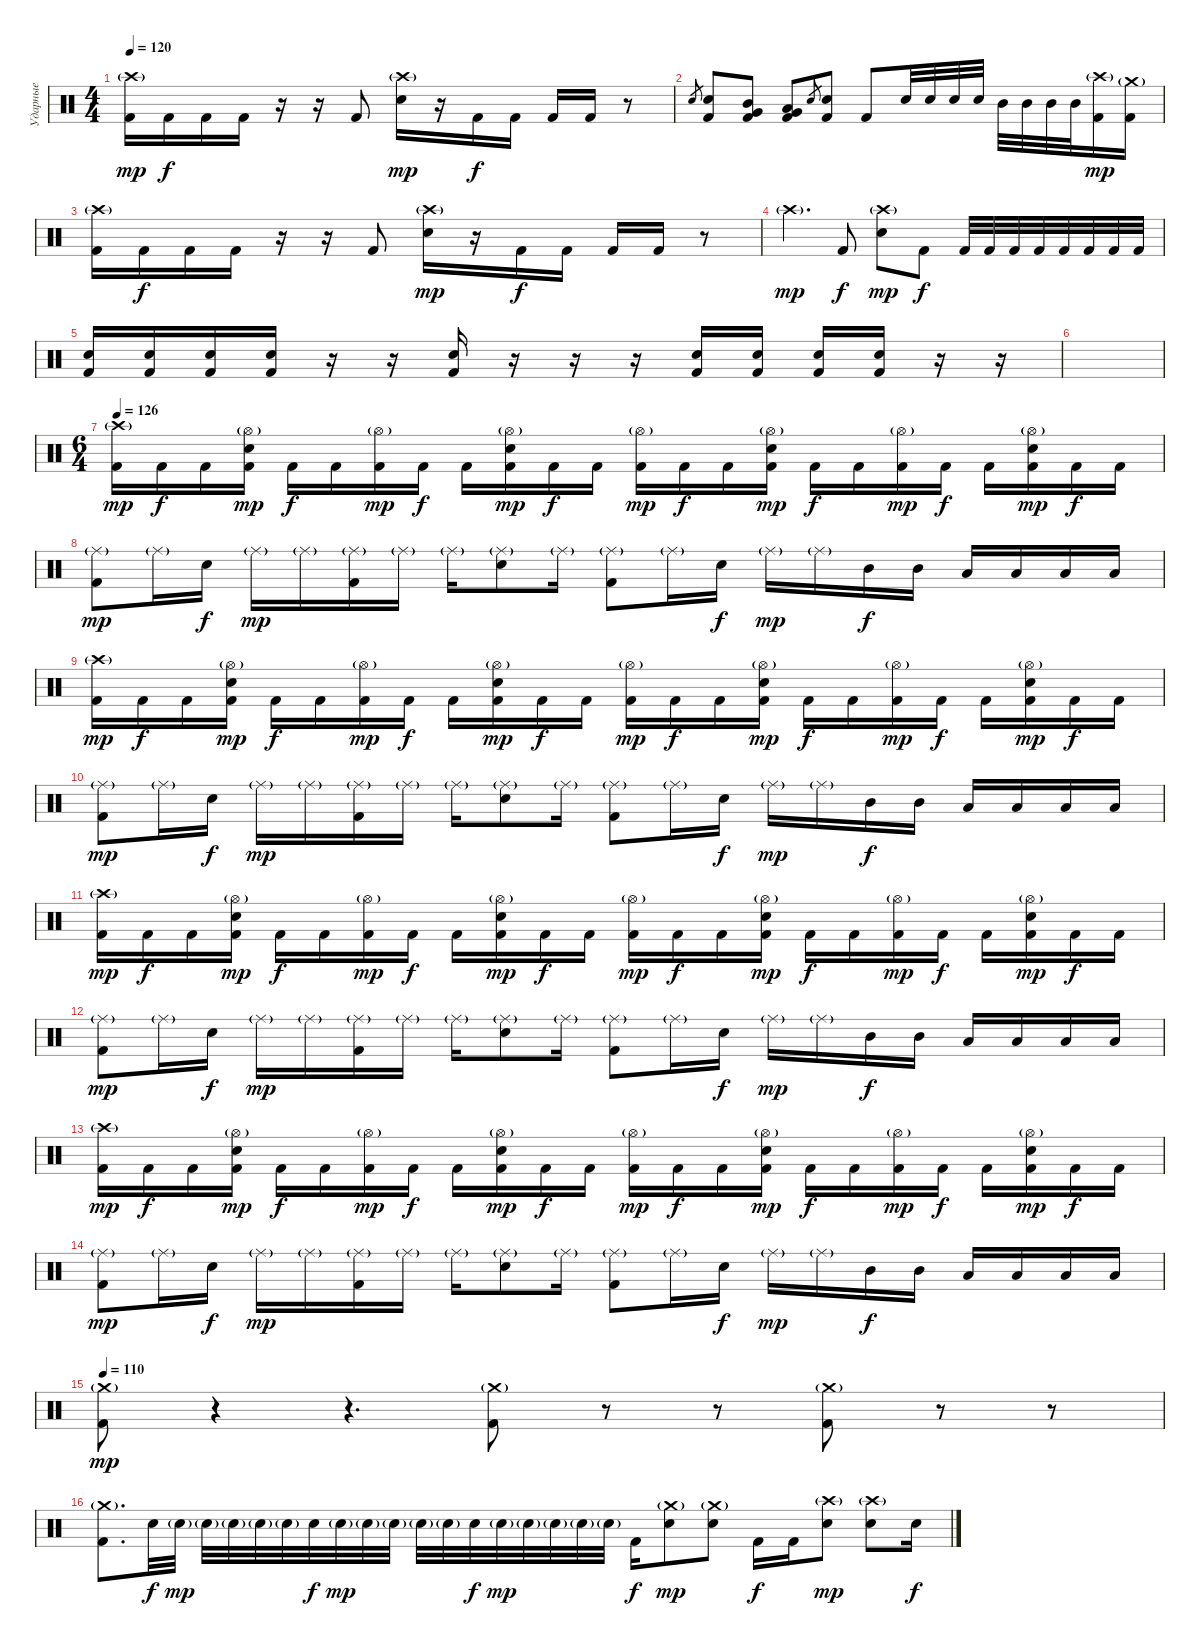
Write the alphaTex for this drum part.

\track ("Ударные" "Ударные") {instrument percussion}
\staff {score}
\articulation defaults
\ts (4 4)
\tempo 120
\clef neutral
\ks c
("Crash high (hit)"{g} "Kick (hit) 2").16{dy mp} "Kick (hit) 2".16{dy f} "Kick (hit) 2".16 "Kick (hit) 2".16 r.16 r.16 "Kick (hit) 2".8 ("Crash high (hit)"{g} "Electric Snare (hit)").16{dy mp} r.16 "Kick (hit) 2".16{dy f} "Kick (hit) 2".16 "Kick (hit) 2".16 "Kick (hit) 2".16 r.8 |
"Electric Snare (hit)".8{gr} ("Electric Snare (hit)" "Kick (hit) 2").8 ("Very Low Tom (hit)" "Mid Tom (hit)" "Kick (hit) 2").8 ("Very Low Tom (hit)" "Low Tom (hit)" "Kick (hit) 2").8 "Electric Snare (hit)".8{gr} ("Electric Snare (hit)" "Kick (hit) 2").8 "Kick (hit) 2".8 "Electric Snare (hit)".32 "Electric Snare (hit)".32 "Electric Snare (hit)".32 "Electric Snare (hit)".32 "Mid Tom (hit)".32 "Mid Tom (hit)".32 "Mid Tom (hit)".32 "Mid Tom (hit)".32 ("Crash high (hit)"{g} "Kick (hit) 2").16{dy mp} ("Crash medium (hit)"{g} "Kick (hit) 2").16 |
("Crash high (hit)"{g} "Kick (hit) 2").16 "Kick (hit) 2".16{dy f} "Kick (hit) 2".16 "Kick (hit) 2".16 r.16 r.16 "Kick (hit) 2".8 ("Crash high (hit)"{g} "Electric Snare (hit)").16{dy mp} r.16 "Kick (hit) 2".16{dy f} "Kick (hit) 2".16 "Kick (hit) 2".16 "Kick (hit) 2".16 r.8 |
"Crash high (hit)"{g}.4{d dy mp} "Kick (hit) 2".8{dy f} ("Crash high (hit)"{g} "Electric Snare (hit)").8{dy mp} "Kick (hit) 2".8{dy f} "Kick (hit) 2".32 "Kick (hit) 2".32 "Kick (hit) 2".32 "Kick (hit) 2".32 "Kick (hit) 2".32 "Kick (hit) 2".32 "Kick (hit) 2".32 "Kick (hit) 2".32 |
("Electric Snare (hit)" "Kick (hit) 2").16 ("Electric Snare (hit)" "Kick (hit) 2").16 ("Electric Snare (hit)" "Kick (hit) 2").16 ("Electric Snare (hit)" "Kick (hit) 2").16 r.16 r.16 ("Electric Snare (hit)" "Kick (hit) 2").16 r.16 r.16 r.16 ("Electric Snare (hit)" "Kick (hit) 2").16 ("Electric Snare (hit)" "Kick (hit) 2").16 ("Electric Snare (hit)" "Kick (hit) 2").16 ("Electric Snare (hit)" "Kick (hit) 2").16 r.16 r.16 |
|
\ts (6 4)
\tempo 126
("Crash high (hit)"{g} "Kick (hit) 2").16{dy mp} "Kick (hit) 2".16{dy f} "Kick (hit) 2".16 ("Hi-Hat (open)"{g} "Electric Snare (hit)" "Kick (hit) 2").16{dy mp} "Kick (hit) 2".16{dy f} "Kick (hit) 2".16 ("Hi-Hat (open)"{g} "Kick (hit) 2").16{dy mp} "Kick (hit) 2".16{dy f} "Kick (hit) 2".16 ("Hi-Hat (open)"{g} "Electric Snare (hit)" "Kick (hit) 2").16{dy mp} "Kick (hit) 2".16{dy f} "Kick (hit) 2".16 ("Hi-Hat (open)"{g} "Kick (hit) 2").16{dy mp} "Kick (hit) 2".16{dy f} "Kick (hit) 2".16 ("Hi-Hat (open)"{g} "Electric Snare (hit)" "Kick (hit) 2").16{dy mp} "Kick (hit) 2".16{dy f} "Kick (hit) 2".16 ("Hi-Hat (open)"{g} "Kick (hit) 2").16{dy mp} "Kick (hit) 2".16{dy f} "Kick (hit) 2".16 ("Hi-Hat (open)"{g} "Electric Snare (hit)" "Kick (hit) 2").16{dy mp} "Kick (hit) 2".16{dy f} "Kick (hit) 2".16 |
("Ride (middle)"{g} "Kick (hit) 2").8{dy mp} "Ride (middle)"{g}.16 "Electric Snare (hit)".16{dy f} "Ride (middle)"{g}.16{dy mp} "Ride (middle)"{g}.16 ("Ride (middle)"{g} "Kick (hit) 2").16 "Ride (middle)"{g}.16 "Ride (middle)"{g}.16 ("Ride (middle)"{g} "Electric Snare (hit)").8 "Ride (middle)"{g}.16 ("Ride (middle)"{g} "Kick (hit) 2").8 "Ride (middle)"{g}.16 "Electric Snare (hit)".16{dy f} "Ride (middle)"{g}.16{dy mp} "Ride (middle)"{g}.16 "Mid Tom (hit)".16{dy f} "Mid Tom (hit)".16 "Low Tom (hit)".16 "Low Tom (hit)".16 "Low Tom (hit)".16 "Low Tom (hit)".16 |
("Crash high (hit)"{g} "Kick (hit) 2").16{dy mp} "Kick (hit) 2".16{dy f} "Kick (hit) 2".16 ("Hi-Hat (open)"{g} "Electric Snare (hit)" "Kick (hit) 2").16{dy mp} "Kick (hit) 2".16{dy f} "Kick (hit) 2".16 ("Hi-Hat (open)"{g} "Kick (hit) 2").16{dy mp} "Kick (hit) 2".16{dy f} "Kick (hit) 2".16 ("Hi-Hat (open)"{g} "Electric Snare (hit)" "Kick (hit) 2").16{dy mp} "Kick (hit) 2".16{dy f} "Kick (hit) 2".16 ("Hi-Hat (open)"{g} "Kick (hit) 2").16{dy mp} "Kick (hit) 2".16{dy f} "Kick (hit) 2".16 ("Hi-Hat (open)"{g} "Electric Snare (hit)" "Kick (hit) 2").16{dy mp} "Kick (hit) 2".16{dy f} "Kick (hit) 2".16 ("Hi-Hat (open)"{g} "Kick (hit) 2").16{dy mp} "Kick (hit) 2".16{dy f} "Kick (hit) 2".16 ("Hi-Hat (open)"{g} "Electric Snare (hit)" "Kick (hit) 2").16{dy mp} "Kick (hit) 2".16{dy f} "Kick (hit) 2".16 |
("Ride (middle)"{g} "Kick (hit) 2").8{dy mp} "Ride (middle)"{g}.16 "Electric Snare (hit)".16{dy f} "Ride (middle)"{g}.16{dy mp} "Ride (middle)"{g}.16 ("Ride (middle)"{g} "Kick (hit) 2").16 "Ride (middle)"{g}.16 "Ride (middle)"{g}.16 ("Ride (middle)"{g} "Electric Snare (hit)").8 "Ride (middle)"{g}.16 ("Ride (middle)"{g} "Kick (hit) 2").8 "Ride (middle)"{g}.16 "Electric Snare (hit)".16{dy f} "Ride (middle)"{g}.16{dy mp} "Ride (middle)"{g}.16 "Mid Tom (hit)".16{dy f} "Mid Tom (hit)".16 "Low Tom (hit)".16 "Low Tom (hit)".16 "Low Tom (hit)".16 "Low Tom (hit)".16 |
("Crash high (hit)"{g} "Kick (hit) 2").16{dy mp} "Kick (hit) 2".16{dy f} "Kick (hit) 2".16 ("Hi-Hat (open)"{g} "Electric Snare (hit)" "Kick (hit) 2").16{dy mp} "Kick (hit) 2".16{dy f} "Kick (hit) 2".16 ("Hi-Hat (open)"{g} "Kick (hit) 2").16{dy mp} "Kick (hit) 2".16{dy f} "Kick (hit) 2".16 ("Hi-Hat (open)"{g} "Electric Snare (hit)" "Kick (hit) 2").16{dy mp} "Kick (hit) 2".16{dy f} "Kick (hit) 2".16 ("Hi-Hat (open)"{g} "Kick (hit) 2").16{dy mp} "Kick (hit) 2".16{dy f} "Kick (hit) 2".16 ("Hi-Hat (open)"{g} "Electric Snare (hit)" "Kick (hit) 2").16{dy mp} "Kick (hit) 2".16{dy f} "Kick (hit) 2".16 ("Hi-Hat (open)"{g} "Kick (hit) 2").16{dy mp} "Kick (hit) 2".16{dy f} "Kick (hit) 2".16 ("Hi-Hat (open)"{g} "Electric Snare (hit)" "Kick (hit) 2").16{dy mp} "Kick (hit) 2".16{dy f} "Kick (hit) 2".16 |
("Ride (middle)"{g} "Kick (hit) 2").8{dy mp} "Ride (middle)"{g}.16 "Electric Snare (hit)".16{dy f} "Ride (middle)"{g}.16{dy mp} "Ride (middle)"{g}.16 ("Ride (middle)"{g} "Kick (hit) 2").16 "Ride (middle)"{g}.16 "Ride (middle)"{g}.16 ("Ride (middle)"{g} "Electric Snare (hit)").8 "Ride (middle)"{g}.16 ("Ride (middle)"{g} "Kick (hit) 2").8 "Ride (middle)"{g}.16 "Electric Snare (hit)".16{dy f} "Ride (middle)"{g}.16{dy mp} "Ride (middle)"{g}.16 "Mid Tom (hit)".16{dy f} "Mid Tom (hit)".16 "Low Tom (hit)".16 "Low Tom (hit)".16 "Low Tom (hit)".16 "Low Tom (hit)".16 |
("Crash high (hit)"{g} "Kick (hit) 2").16{dy mp} "Kick (hit) 2".16{dy f} "Kick (hit) 2".16 ("Hi-Hat (open)"{g} "Electric Snare (hit)" "Kick (hit) 2").16{dy mp} "Kick (hit) 2".16{dy f} "Kick (hit) 2".16 ("Hi-Hat (open)"{g} "Kick (hit) 2").16{dy mp} "Kick (hit) 2".16{dy f} "Kick (hit) 2".16 ("Hi-Hat (open)"{g} "Electric Snare (hit)" "Kick (hit) 2").16{dy mp} "Kick (hit) 2".16{dy f} "Kick (hit) 2".16 ("Hi-Hat (open)"{g} "Kick (hit) 2").16{dy mp} "Kick (hit) 2".16{dy f} "Kick (hit) 2".16 ("Hi-Hat (open)"{g} "Electric Snare (hit)" "Kick (hit) 2").16{dy mp} "Kick (hit) 2".16{dy f} "Kick (hit) 2".16 ("Hi-Hat (open)"{g} "Kick (hit) 2").16{dy mp} "Kick (hit) 2".16{dy f} "Kick (hit) 2".16 ("Hi-Hat (open)"{g} "Electric Snare (hit)" "Kick (hit) 2").16{dy mp} "Kick (hit) 2".16{dy f} "Kick (hit) 2".16 |
("Ride (middle)"{g} "Kick (hit) 2").8{dy mp} "Ride (middle)"{g}.16 "Electric Snare (hit)".16{dy f} "Ride (middle)"{g}.16{dy mp} "Ride (middle)"{g}.16 ("Ride (middle)"{g} "Kick (hit) 2").16 "Ride (middle)"{g}.16 "Ride (middle)"{g}.16 ("Ride (middle)"{g} "Electric Snare (hit)").8 "Ride (middle)"{g}.16 ("Ride (middle)"{g} "Kick (hit) 2").8 "Ride (middle)"{g}.16 "Electric Snare (hit)".16{dy f} "Ride (middle)"{g}.16{dy mp} "Ride (middle)"{g}.16 "Mid Tom (hit)".16{dy f} "Mid Tom (hit)".16 "Low Tom (hit)".16 "Low Tom (hit)".16 "Low Tom (hit)".16 "Low Tom (hit)".16 |
\tempo 110
("Crash medium (hit)"{g} "Kick (hit) 2").8{dy mp} r.4{volume 0} r.4{d} ("Crash medium (hit)"{g} "Kick (hit) 2").8{volume 16} r.8{volume 0} r.8 ("Crash medium (hit)"{g} "Kick (hit) 2").8{volume 16} r.8{volume 0} r.8 |
("Crash medium (hit)"{g} "Kick (hit) 2").8{d volume 16} "Electric Snare (hit)".32{dy f} "Electric Snare (hit)"{g}.32{dy mp} "Electric Snare (hit)"{g}.32 "Electric Snare (hit)"{g}.32 "Electric Snare (hit)"{g}.32 "Electric Snare (hit)"{g}.32 "Electric Snare (hit)".32{dy f} "Electric Snare (hit)"{g}.32{dy mp} "Electric Snare (hit)"{g}.32 "Electric Snare (hit)"{g}.32 "Electric Snare (hit)"{g}.32 "Electric Snare (hit)"{g}.32 "Electric Snare (hit)".32{dy f} "Electric Snare (hit)"{g}.32{dy mp} "Electric Snare (hit)"{g}.32 "Electric Snare (hit)"{g}.32 "Electric Snare (hit)"{g}.32 "Electric Snare (hit)"{g}.32 "Kick (hit) 2".16{dy f} ("Crash medium (hit)"{g} "Electric Snare (hit)").8{dy mp} ("Crash medium (hit)"{g} "Electric Snare (hit)").8 "Kick (hit) 2".16{dy f} "Kick (hit) 2".16 ("Crash high (hit)"{g} "Electric Snare (hit)").8{dy mp} ("Crash high (hit)"{g} "Electric Snare (hit)").8 "Electric Snare (hit)".16{dy f}
